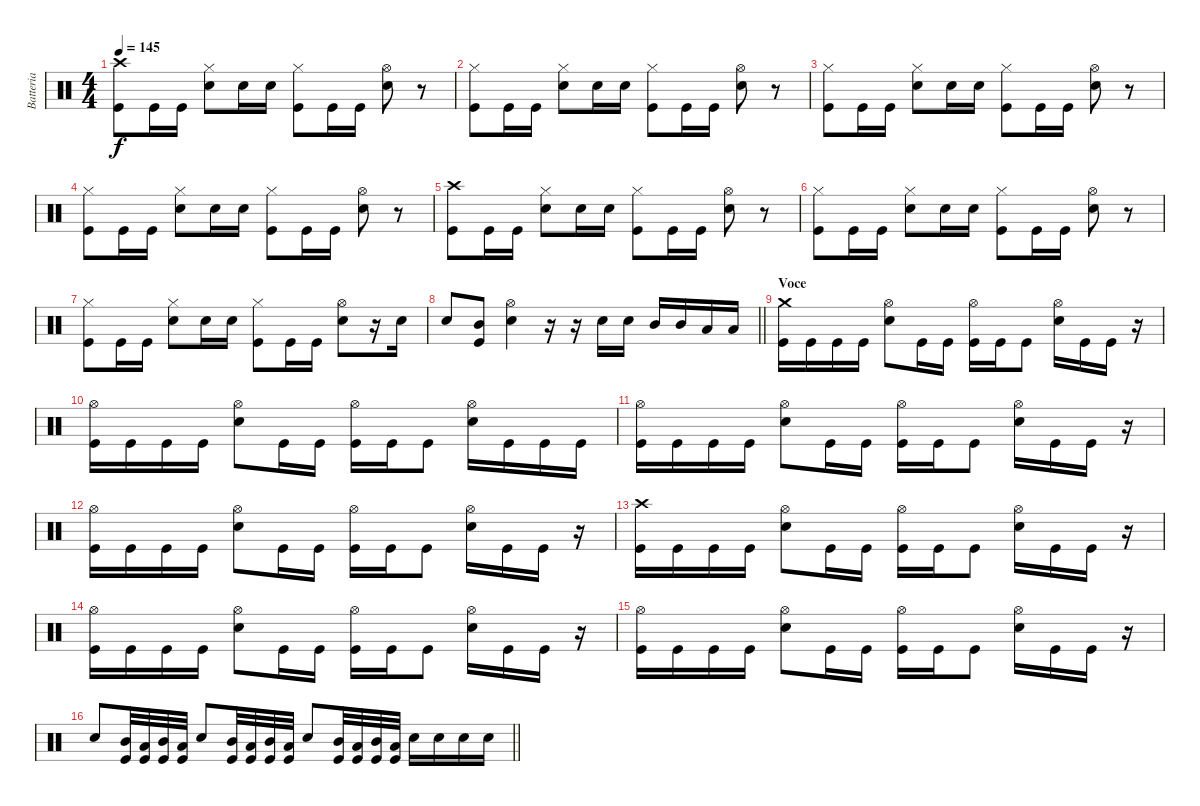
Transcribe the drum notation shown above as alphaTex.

\track ("Batteria" "Batteria") {instrument percussion}
\staff {score}
\articulation defaults
\ts (4 4)
\tempo 145
\clef neutral
\ks c
("Crash high (hit)" "Kick (hit)").8{dy f} "Kick (hit)".16 "Kick (hit)".16 ("Hi-Hat (closed)" "Electric Snare (hit)").8 "Electric Snare (hit)".16 "Electric Snare (hit)".16 ("Hi-Hat (closed)" "Kick (hit)").8 "Kick (hit)".16 "Kick (hit)".16 ("Hi-Hat (open)" "Electric Snare (hit)").8 r.8 |
("Hi-Hat (closed)" "Kick (hit)").8 "Kick (hit)".16 "Kick (hit)".16 ("Hi-Hat (closed)" "Electric Snare (hit)").8 "Electric Snare (hit)".16 "Electric Snare (hit)".16 ("Hi-Hat (closed)" "Kick (hit)").8 "Kick (hit)".16 "Kick (hit)".16 ("Hi-Hat (open)" "Electric Snare (hit)").8 r.8 |
("Hi-Hat (closed)" "Kick (hit)").8 "Kick (hit)".16 "Kick (hit)".16 ("Hi-Hat (closed)" "Electric Snare (hit)").8 "Electric Snare (hit)".16 "Electric Snare (hit)".16 ("Hi-Hat (closed)" "Kick (hit)").8 "Kick (hit)".16 "Kick (hit)".16 ("Hi-Hat (open)" "Electric Snare (hit)").8 r.8 |
("Hi-Hat (closed)" "Kick (hit)").8 "Kick (hit)".16 "Kick (hit)".16 ("Hi-Hat (closed)" "Electric Snare (hit)").8 "Electric Snare (hit)".16 "Electric Snare (hit)".16 ("Hi-Hat (closed)" "Kick (hit)").8 "Kick (hit)".16 "Kick (hit)".16 ("Hi-Hat (open)" "Electric Snare (hit)").8 r.8 |
("Crash high (hit)" "Kick (hit)").8 "Kick (hit)".16 "Kick (hit)".16 ("Hi-Hat (closed)" "Electric Snare (hit)").8 "Electric Snare (hit)".16 "Electric Snare (hit)".16 ("Hi-Hat (closed)" "Kick (hit)").8 "Kick (hit)".16 "Kick (hit)".16 ("Hi-Hat (open)" "Electric Snare (hit)").8 r.8 |
("Hi-Hat (closed)" "Kick (hit)").8 "Kick (hit)".16 "Kick (hit)".16 ("Hi-Hat (closed)" "Electric Snare (hit)").8 "Electric Snare (hit)".16 "Electric Snare (hit)".16 ("Hi-Hat (closed)" "Kick (hit)").8 "Kick (hit)".16 "Kick (hit)".16 ("Hi-Hat (open)" "Electric Snare (hit)").8 r.8 |
("Hi-Hat (closed)" "Kick (hit)").8 "Kick (hit)".16 "Kick (hit)".16 ("Hi-Hat (closed)" "Electric Snare (hit)").8 "Electric Snare (hit)".16 "Electric Snare (hit)".16 ("Hi-Hat (closed)" "Kick (hit)").8 "Kick (hit)".16 "Kick (hit)".16 ("Hi-Hat (open)" "Electric Snare (hit)").8 r.16 "Electric Snare (hit)".16 |
\barLineRight lightlight "Electric Snare (hit)".8
("Mid Tom (hit)" "Kick (hit)").8 ("Hi-Hat (open)" "Electric Snare (hit)").4 r.16 r.16 "Electric Snare (hit)".16 "Electric Snare (hit)".16 "Mid Tom (hit)".16 "Mid Tom (hit)".16 "Low Tom (hit)".16 "Low Tom (hit)".16 |
\section ("" "Voce")
("Crash medium (hit)" "Kick (hit)").16 "Kick (hit)".16 "Kick (hit)".16 "Kick (hit)".16 ("Hi-Hat (open)" "Electric Snare (hit)").8 "Kick (hit)".16 "Kick (hit)".16 ("Hi-Hat (open)" "Kick (hit)").16 "Kick (hit)".16 "Kick (hit)".8 ("Hi-Hat (open)" "Electric Snare (hit)").16 "Kick (hit)".16 "Kick (hit)".16 r.16 |
("Hi-Hat (open)" "Kick (hit)").16 "Kick (hit)".16 "Kick (hit)".16 "Kick (hit)".16 ("Hi-Hat (open)" "Electric Snare (hit)").8 "Kick (hit)".16 "Kick (hit)".16 ("Hi-Hat (open)" "Kick (hit)").16 "Kick (hit)".16 "Kick (hit)".8 ("Hi-Hat (open)" "Electric Snare (hit)").16 "Kick (hit)".16 "Kick (hit)".16 "Kick (hit)".16 |
("Hi-Hat (open)" "Kick (hit)").16 "Kick (hit)".16 "Kick (hit)".16 "Kick (hit)".16 ("Hi-Hat (open)" "Electric Snare (hit)").8 "Kick (hit)".16 "Kick (hit)".16 ("Hi-Hat (open)" "Kick (hit)").16 "Kick (hit)".16 "Kick (hit)".8 ("Hi-Hat (open)" "Electric Snare (hit)").16 "Kick (hit)".16 "Kick (hit)".16 r.16 |
("Hi-Hat (open)" "Kick (hit)").16 "Kick (hit)".16 "Kick (hit)".16 "Kick (hit)".16 ("Hi-Hat (open)" "Electric Snare (hit)").8 "Kick (hit)".16 "Kick (hit)".16 ("Hi-Hat (open)" "Kick (hit)").16 "Kick (hit)".16 "Kick (hit)".8 ("Hi-Hat (open)" "Electric Snare (hit)").16 "Kick (hit)".16 "Kick (hit)".16 r.16 |
("Crash high (hit)" "Kick (hit)").16 "Kick (hit)".16 "Kick (hit)".16 "Kick (hit)".16 ("Hi-Hat (open)" "Electric Snare (hit)").8 "Kick (hit)".16 "Kick (hit)".16 ("Hi-Hat (open)" "Kick (hit)").16 "Kick (hit)".16 "Kick (hit)".8 ("Hi-Hat (open)" "Electric Snare (hit)").16 "Kick (hit)".16 "Kick (hit)".16 r.16 |
("Hi-Hat (open)" "Kick (hit)").16 "Kick (hit)".16 "Kick (hit)".16 "Kick (hit)".16 ("Hi-Hat (open)" "Electric Snare (hit)").8 "Kick (hit)".16 "Kick (hit)".16 ("Hi-Hat (open)" "Kick (hit)").16 "Kick (hit)".16 "Kick (hit)".8 ("Hi-Hat (open)" "Electric Snare (hit)").16 "Kick (hit)".16 "Kick (hit)".16 r.16 |
("Hi-Hat (open)" "Kick (hit)").16 "Kick (hit)".16 "Kick (hit)".16 "Kick (hit)".16 ("Hi-Hat (open)" "Electric Snare (hit)").8 "Kick (hit)".16 "Kick (hit)".16 ("Hi-Hat (open)" "Kick (hit)").16 "Kick (hit)".16 "Kick (hit)".8 ("Hi-Hat (open)" "Electric Snare (hit)").16 "Kick (hit)".16 "Kick (hit)".16 r.16 |
\barLineRight lightlight "Electric Snare (hit)".8
("Mid Tom (hit)" "Kick (hit)").32 ("Low Tom (hit)" "Kick (hit)").32 ("Mid Tom (hit)" "Kick (hit)").32 ("Low Tom (hit)" "Kick (hit)").32 "Electric Snare (hit)".8 ("Mid Tom (hit)" "Kick (hit)").32 ("Low Tom (hit)" "Kick (hit)").32 ("Mid Tom (hit)" "Kick (hit)").32 ("Low Tom (hit)" "Kick (hit)").32 "Electric Snare (hit)".8 ("Mid Tom (hit)" "Kick (hit)").32 ("Low Tom (hit)" "Kick (hit)").32 ("Mid Tom (hit)" "Kick (hit)").32 ("Low Tom (hit)" "Kick (hit)").32 "Electric Snare (hit)".16 "Electric Snare (hit)".16 "Electric Snare (hit)".16 "Electric Snare (hit)".16
